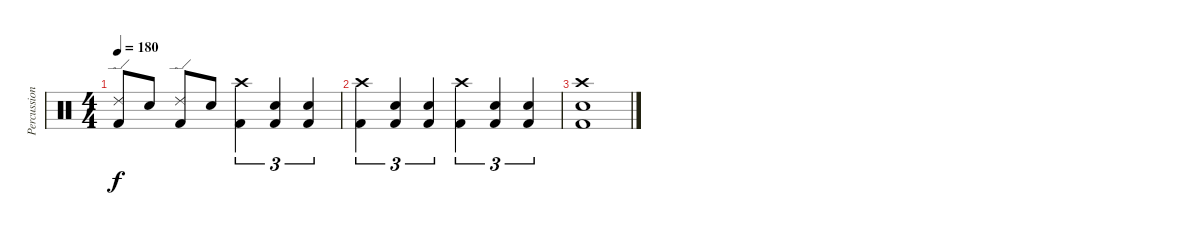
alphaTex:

\track ("Percussion" "Percussion") {instrument percussion}
\staff {score}
\articulation defaults
\ts (4 4)
\tempo 180
\clef neutral
\ks c
("Ride (edge) 2" "Kick (hit) 2").8{dy f} "Electric Snare (hit)".8 ("Ride (edge) 2" "Kick (hit) 2").8 "Electric Snare (hit)".8 ("Crash high (hit)" "Kick (hit) 2").4{tu (3 2)} ("Electric Snare (hit)" "Kick (hit) 2").4{tu (3 2)} ("Electric Snare (hit)" "Kick (hit) 2").4{tu (3 2)} |
("Crash high (hit)" "Kick (hit) 2").4{tu (3 2)} ("Electric Snare (hit)" "Kick (hit) 2").4{tu (3 2)} ("Electric Snare (hit)" "Kick (hit) 2").4{tu (3 2)} ("Crash high (hit)" "Kick (hit) 2").4{tu (3 2)} ("Electric Snare (hit)" "Kick (hit) 2").4{tu (3 2)} ("Electric Snare (hit)" "Kick (hit) 2").4{tu (3 2)} |
("Crash high (hit)" "Electric Snare (hit)" "Kick (hit) 2").1
